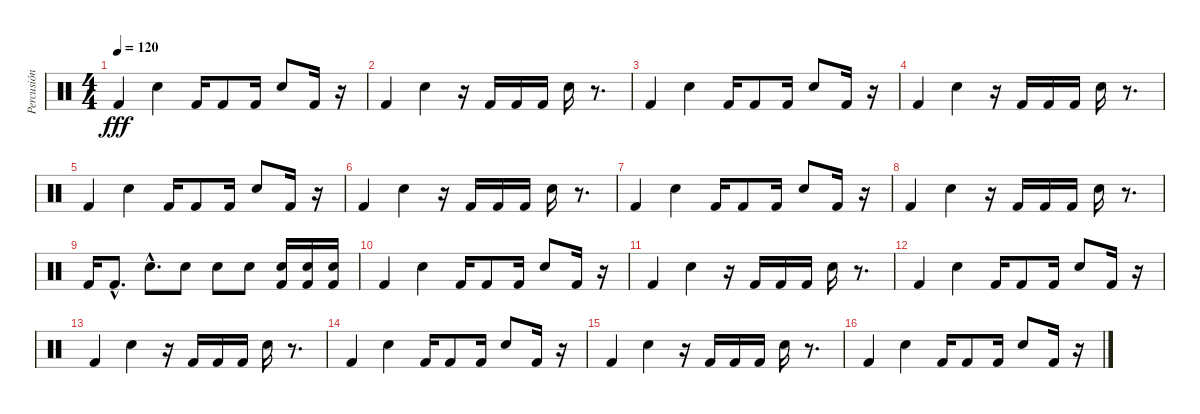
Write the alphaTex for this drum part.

\track ("Percusión" "Percusión") {instrument percussion}
\staff {score}
\articulation defaults
\ts (4 4)
\tempo 120
\clef neutral
\ks c "Kick (hit) 2".4{dy fff} "Snare (hit) 2".4 "Kick (hit) 2".16 "Kick (hit) 2".8 "Kick (hit) 2".16 "Snare (hit) 2".8 "Kick (hit) 2".16
r.16 |
"Kick (hit) 2".4 "Snare (hit) 2".4 r.16 "Kick (hit) 2".16 "Kick (hit) 2".16 "Kick (hit) 2".16 "Snare (hit) 2".16 r.8{d} |
"Kick (hit) 2".4 "Snare (hit) 2".4 "Kick (hit) 2".16 "Kick (hit) 2".8 "Kick (hit) 2".16 "Snare (hit) 2".8 "Kick (hit) 2".16 r.16 |
"Kick (hit) 2".4 "Snare (hit) 2".4 r.16 "Kick (hit) 2".16 "Kick (hit) 2".16 "Kick (hit) 2".16 "Snare (hit) 2".16 r.8{d} |
"Kick (hit) 2".4 "Snare (hit) 2".4 "Kick (hit) 2".16 "Kick (hit) 2".8 "Kick (hit) 2".16 "Snare (hit) 2".8 "Kick (hit) 2".16 r.16 |
"Kick (hit) 2".4 "Snare (hit) 2".4 r.16 "Kick (hit) 2".16 "Kick (hit) 2".16 "Kick (hit) 2".16 "Snare (hit) 2".16 r.8{d} |
"Kick (hit) 2".4 "Snare (hit) 2".4 "Kick (hit) 2".16 "Kick (hit) 2".8 "Kick (hit) 2".16 "Snare (hit) 2".8 "Kick (hit) 2".16 r.16 |
"Kick (hit) 2".4 "Snare (hit) 2".4 r.16 "Kick (hit) 2".16 "Kick (hit) 2".16 "Kick (hit) 2".16 "Snare (hit) 2".16 r.8{d} |
"Kick (hit) 2".16 "Kick (hit) 2"{hac}.8{d} "Snare (hit) 2"{hac}.8{d} "Snare (hit) 2".8 "Snare (hit) 2".8 "Snare (hit) 2".8 ("Snare (hit) 2" "Kick (hit) 2").16 ("Snare (hit) 2" "Kick (hit) 2").16 ("Snare (hit) 2" "Kick (hit) 2").16 |
"Kick (hit) 2".4 "Snare (hit) 2".4 "Kick (hit) 2".16 "Kick (hit) 2".8 "Kick (hit) 2".16 "Snare (hit) 2".8 "Kick (hit) 2".16 r.16 |
"Kick (hit) 2".4 "Snare (hit) 2".4 r.16 "Kick (hit) 2".16 "Kick (hit) 2".16 "Kick (hit) 2".16 "Snare (hit) 2".16 r.8{d} |
"Kick (hit) 2".4 "Snare (hit) 2".4 "Kick (hit) 2".16 "Kick (hit) 2".8 "Kick (hit) 2".16 "Snare (hit) 2".8 "Kick (hit) 2".16 r.16 |
"Kick (hit) 2".4 "Snare (hit) 2".4 r.16 "Kick (hit) 2".16 "Kick (hit) 2".16 "Kick (hit) 2".16 "Snare (hit) 2".16 r.8{d} |
"Kick (hit) 2".4 "Snare (hit) 2".4 "Kick (hit) 2".16 "Kick (hit) 2".8 "Kick (hit) 2".16 "Snare (hit) 2".8 "Kick (hit) 2".16 r.16 |
"Kick (hit) 2".4 "Snare (hit) 2".4 r.16 "Kick (hit) 2".16 "Kick (hit) 2".16 "Kick (hit) 2".16 "Snare (hit) 2".16 r.8{d} |
"Kick (hit) 2".4 "Snare (hit) 2".4 "Kick (hit) 2".16 "Kick (hit) 2".8 "Kick (hit) 2".16 "Snare (hit) 2".8 "Kick (hit) 2".16 r.16
